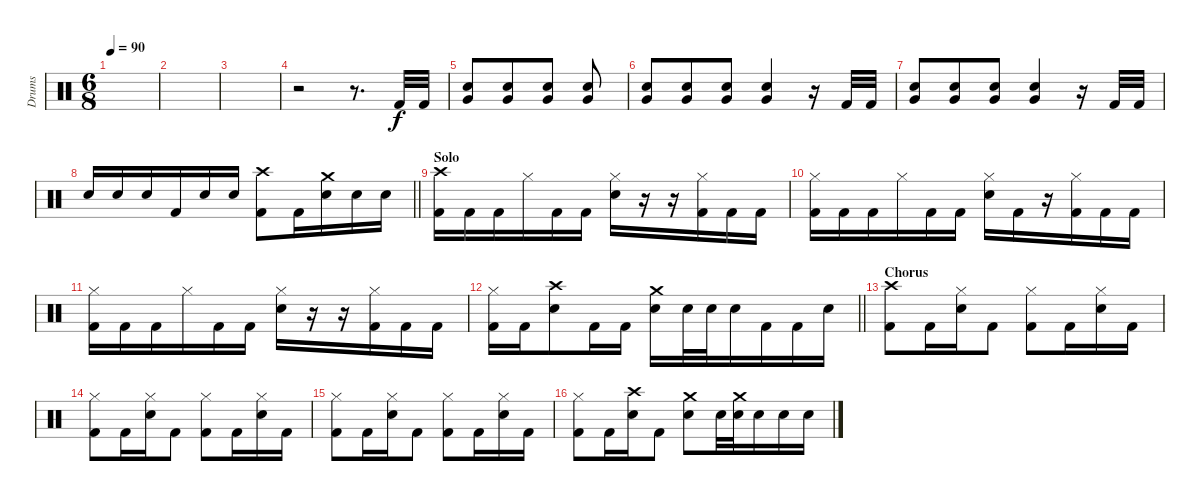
\track ("Drums" "Drums") {instrument percussion}
\staff {score}
\articulation defaults
\ts (6 8)
\tempo 90
\clef neutral
\ks c
|
|
|
r.2 r.8{d} "Kick (hit) 2".32 "Kick (hit) 2".32 |
("Snare (hit) 2" "Very Low Tom (hit)").8 ("Snare (hit) 2" "Very Low Tom (hit)").8 ("Snare (hit) 2" "Very Low Tom (hit)").8 ("Snare (hit) 2" "Very Low Tom (hit)").8 |
("Snare (hit) 2" "Very Low Tom (hit)").8 ("Snare (hit) 2" "Very Low Tom (hit)").8 ("Snare (hit) 2" "Very Low Tom (hit)").8 ("Snare (hit) 2" "Very Low Tom (hit)").4 r.16 "Kick (hit) 2".32 "Kick (hit) 2".32 |
("Snare (hit) 2" "Very Low Tom (hit)").8 ("Snare (hit) 2" "Very Low Tom (hit)").8 ("Snare (hit) 2" "Very Low Tom (hit)").8 ("Snare (hit) 2" "Very Low Tom (hit)").4 r.16 "Kick (hit) 2".32 "Kick (hit) 2".32 |
\barLineRight lightlight "Snare (hit) 2".16 "Snare (hit) 2".16 "Snare (hit) 2".16 "Kick (hit) 2".16 "Snare (hit) 2".16 "Snare (hit) 2".16
("Crash high (hit)" "Kick (hit) 2").8 "Kick (hit) 2".16 ("Crash medium (hit)" "Snare (hit) 2").16 "Snare (hit) 2".16 "Snare (hit) 2".16 |
\section ("" "Solo")
("Crash high (hit)" "Kick (hit) 2").16 "Kick (hit) 2".16 "Kick (hit) 2".16 "Hi-Hat (closed)".16 "Kick (hit) 2".16 "Kick (hit) 2".16 ("Hi-Hat (closed)" "Snare (hit) 2").16 r.16 r.16 ("Hi-Hat (closed)" "Kick (hit) 2").16 "Kick (hit) 2".16 "Kick (hit) 2".16 |
("Hi-Hat (closed)" "Kick (hit) 2").16 "Kick (hit) 2".16 "Kick (hit) 2".16 "Hi-Hat (closed)".16 "Kick (hit) 2".16 "Kick (hit) 2".16 ("Hi-Hat (closed)" "Snare (hit) 2").16 "Kick (hit) 2".16 r.16 ("Hi-Hat (closed)" "Kick (hit) 2").16 "Kick (hit) 2".16 "Kick (hit) 2".16 |
("Hi-Hat (closed)" "Kick (hit) 2").16 "Kick (hit) 2".16 "Kick (hit) 2".16 "Hi-Hat (closed)".16 "Kick (hit) 2".16 "Kick (hit) 2".16 ("Hi-Hat (closed)" "Snare (hit) 2").16 r.16 r.16 ("Hi-Hat (closed)" "Kick (hit) 2").16 "Kick (hit) 2".16 "Kick (hit) 2".16 |
\barLineRight lightlight
("Hi-Hat (closed)" "Kick (hit) 2").16 "Kick (hit) 2".16 ("Crash high (hit)" "Snare (hit) 2").8 "Kick (hit) 2".16 "Kick (hit) 2".16 ("Crash medium (hit)" "Snare (hit) 2").16 "Snare (hit) 2".32 "Snare (hit) 2".32 "Snare (hit) 2".16 "Kick (hit) 2".16 "Kick (hit) 2".16 "Snare (hit) 2".16 |
\section ("" "Chorus")
("Crash high (hit)" "Kick (hit) 2").8 "Kick (hit) 2".16 ("Hi-Hat (closed)" "Snare (hit) 2").16 "Kick (hit) 2".8 ("Hi-Hat (closed)" "Kick (hit) 2").8 "Kick (hit) 2".16 ("Hi-Hat (closed)" "Snare (hit) 2").16 "Kick (hit) 2".16 |
("Hi-Hat (closed)" "Kick (hit) 2").8 "Kick (hit) 2".16 ("Hi-Hat (closed)" "Snare (hit) 2").16 "Kick (hit) 2".8 ("Hi-Hat (closed)" "Kick (hit) 2").8 "Kick (hit) 2".16 ("Hi-Hat (closed)" "Snare (hit) 2").16 "Kick (hit) 2".16 |
("Hi-Hat (closed)" "Kick (hit) 2").8 "Kick (hit) 2".16 ("Hi-Hat (closed)" "Snare (hit) 2").16 "Kick (hit) 2".8 ("Hi-Hat (closed)" "Kick (hit) 2").8 "Kick (hit) 2".16 ("Hi-Hat (closed)" "Snare (hit) 2").16 "Kick (hit) 2".16 |
("Hi-Hat (closed)" "Kick (hit) 2").8 "Kick (hit) 2".16 ("Crash high (hit)" "Snare (hit) 2").16 "Kick (hit) 2".8 ("Crash medium (hit)" "Snare (hit) 2").8 "Snare (hit) 2".32 ("Crash medium (hit)" "Snare (hit) 2").32 "Snare (hit) 2".16 "Snare (hit) 2".16 "Snare (hit) 2".16
